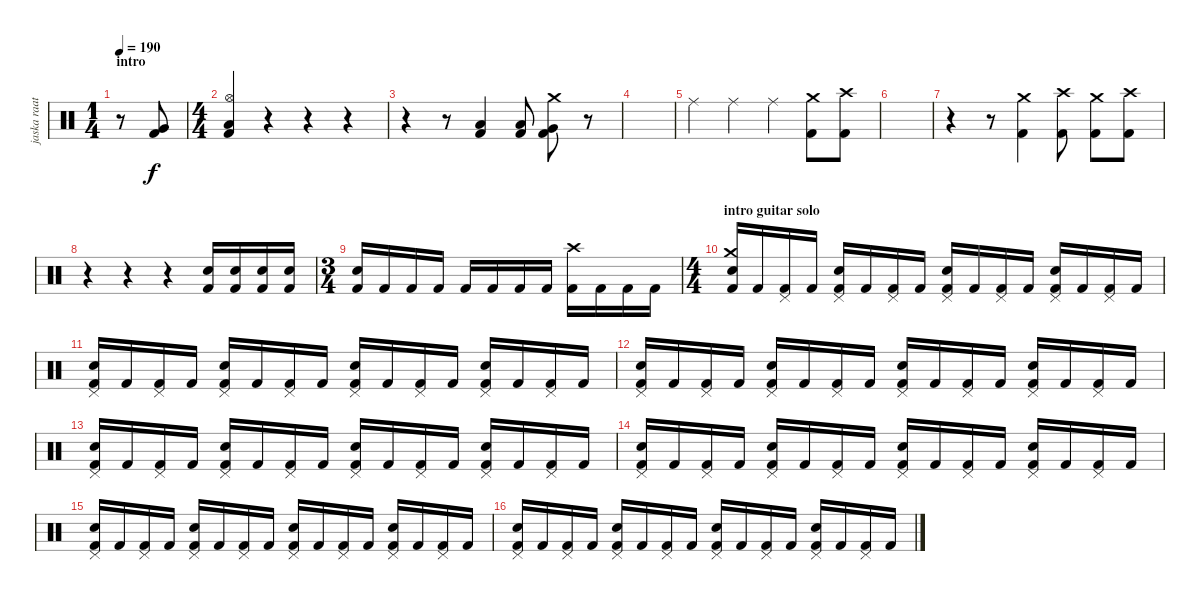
\track ("jaska raatikainen" "jaska raat") {instrument percussion}
\staff {score}
\articulation defaults
\ts (1 4)
\section ("" "intro")
\tempo 190
\clef neutral
\ks c
r.8{dy f} ("Very Low Tom (hit)" "Kick (hit) 2").8 |
\ts (4 4)
("Hi-Hat (open)" "Low Floor Tom (hit)" "Kick (hit) 2").4 r.4 r.4 r.4 |
r.4 r.8 ("Low Tom (hit)" "Kick (hit) 2").4 ("Low Floor Tom (hit)" "Kick (hit) 2").8 ("Crash medium (hit)" "Very Low Tom (hit)" "Kick (hit) 2").8 r.8 |
|
"Ride (middle)".4 "Ride (middle)".4 "Ride (middle)".4 ("Crash medium (hit)" "Kick (hit) 2").8 ("Crash high (hit)" "Kick (hit) 2").8 |
|
r.4 r.8 ("Crash medium (hit)" "Kick (hit) 2").4 ("Crash high (hit)" "Kick (hit) 2").8 ("Crash medium (hit)" "Kick (hit) 2").8 ("Crash high (hit)" "Kick (hit) 2").8 |
r.4 r.4 r.4 ("Snare (hit) 2" "Kick (hit) 2").16 ("Snare (hit) 2" "Kick (hit) 2").16 ("Snare (hit) 2" "Kick (hit) 2").16 ("Snare (hit) 2" "Kick (hit) 2").16 |
\ts (3 4)
("Snare (hit) 2" "Kick (hit) 2").16 "Kick (hit) 2".16 "Kick (hit) 2".16 "Kick (hit) 2".16 "Kick (hit) 2".16 "Kick (hit) 2".16 "Kick (hit) 2".16 "Kick (hit) 2".16 ("Crash high (hit)" "Kick (hit) 2").16 "Kick (hit) 2".16 "Kick (hit) 2".16 "Kick (hit) 2".16 |
\ts (4 4)
\section ("" "intro guitar solo")
("Crash medium (hit)" "Snare (hit) 2" "Kick (hit) 2").16 "Kick (hit) 2".16 ("Pedal Hi-Hat (hit)" "Kick (hit) 2").16 "Kick (hit) 2".16 ("Pedal Hi-Hat (hit)" "Snare (hit) 2" "Kick (hit) 2").16 "Kick (hit) 2".16 ("Pedal Hi-Hat (hit)" "Kick (hit) 2").16 "Kick (hit) 2".16 ("Pedal Hi-Hat (hit)" "Snare (hit) 2" "Kick (hit) 2").16 "Kick (hit) 2".16 ("Pedal Hi-Hat (hit)" "Kick (hit) 2").16 "Kick (hit) 2".16 ("Pedal Hi-Hat (hit)" "Snare (hit) 2" "Kick (hit) 2").16 "Kick (hit) 2".16 ("Pedal Hi-Hat (hit)" "Kick (hit) 2").16 "Kick (hit) 2".16 |
("Pedal Hi-Hat (hit)" "Snare (hit) 2" "Kick (hit) 2").16 "Kick (hit) 2".16 ("Pedal Hi-Hat (hit)" "Kick (hit) 2").16 "Kick (hit) 2".16 ("Pedal Hi-Hat (hit)" "Snare (hit) 2" "Kick (hit) 2").16 "Kick (hit) 2".16 ("Pedal Hi-Hat (hit)" "Kick (hit) 2").16 "Kick (hit) 2".16 ("Pedal Hi-Hat (hit)" "Snare (hit) 2" "Kick (hit) 2").16 "Kick (hit) 2".16 ("Pedal Hi-Hat (hit)" "Kick (hit) 2").16 "Kick (hit) 2".16 ("Pedal Hi-Hat (hit)" "Snare (hit) 2" "Kick (hit) 2").16 "Kick (hit) 2".16 ("Pedal Hi-Hat (hit)" "Kick (hit) 2").16 "Kick (hit) 2".16 |
("Pedal Hi-Hat (hit)" "Snare (hit) 2" "Kick (hit) 2").16 "Kick (hit) 2".16 ("Pedal Hi-Hat (hit)" "Kick (hit) 2").16 "Kick (hit) 2".16 ("Pedal Hi-Hat (hit)" "Snare (hit) 2" "Kick (hit) 2").16 "Kick (hit) 2".16 ("Pedal Hi-Hat (hit)" "Kick (hit) 2").16 "Kick (hit) 2".16 ("Pedal Hi-Hat (hit)" "Snare (hit) 2" "Kick (hit) 2").16 "Kick (hit) 2".16 ("Pedal Hi-Hat (hit)" "Kick (hit) 2").16 "Kick (hit) 2".16 ("Pedal Hi-Hat (hit)" "Snare (hit) 2" "Kick (hit) 2").16 "Kick (hit) 2".16 ("Pedal Hi-Hat (hit)" "Kick (hit) 2").16 "Kick (hit) 2".16 |
("Pedal Hi-Hat (hit)" "Snare (hit) 2" "Kick (hit) 2").16 "Kick (hit) 2".16 ("Pedal Hi-Hat (hit)" "Kick (hit) 2").16 "Kick (hit) 2".16 ("Pedal Hi-Hat (hit)" "Snare (hit) 2" "Kick (hit) 2").16 "Kick (hit) 2".16 ("Pedal Hi-Hat (hit)" "Kick (hit) 2").16 "Kick (hit) 2".16 ("Pedal Hi-Hat (hit)" "Snare (hit) 2" "Kick (hit) 2").16 "Kick (hit) 2".16 ("Pedal Hi-Hat (hit)" "Kick (hit) 2").16 "Kick (hit) 2".16 ("Pedal Hi-Hat (hit)" "Snare (hit) 2" "Kick (hit) 2").16 "Kick (hit) 2".16 ("Pedal Hi-Hat (hit)" "Kick (hit) 2").16 "Kick (hit) 2".16 |
("Pedal Hi-Hat (hit)" "Snare (hit) 2" "Kick (hit) 2").16 "Kick (hit) 2".16 ("Pedal Hi-Hat (hit)" "Kick (hit) 2").16 "Kick (hit) 2".16 ("Pedal Hi-Hat (hit)" "Snare (hit) 2" "Kick (hit) 2").16 "Kick (hit) 2".16 ("Pedal Hi-Hat (hit)" "Kick (hit) 2").16 "Kick (hit) 2".16 ("Pedal Hi-Hat (hit)" "Snare (hit) 2" "Kick (hit) 2").16 "Kick (hit) 2".16 ("Pedal Hi-Hat (hit)" "Kick (hit) 2").16 "Kick (hit) 2".16 ("Pedal Hi-Hat (hit)" "Snare (hit) 2" "Kick (hit) 2").16 "Kick (hit) 2".16 ("Pedal Hi-Hat (hit)" "Kick (hit) 2").16 "Kick (hit) 2".16 |
("Pedal Hi-Hat (hit)" "Snare (hit) 2" "Kick (hit) 2").16 "Kick (hit) 2".16 ("Pedal Hi-Hat (hit)" "Kick (hit) 2").16 "Kick (hit) 2".16 ("Pedal Hi-Hat (hit)" "Snare (hit) 2" "Kick (hit) 2").16 "Kick (hit) 2".16 ("Pedal Hi-Hat (hit)" "Kick (hit) 2").16 "Kick (hit) 2".16 ("Pedal Hi-Hat (hit)" "Snare (hit) 2" "Kick (hit) 2").16 "Kick (hit) 2".16 ("Pedal Hi-Hat (hit)" "Kick (hit) 2").16 "Kick (hit) 2".16 ("Pedal Hi-Hat (hit)" "Snare (hit) 2" "Kick (hit) 2").16 "Kick (hit) 2".16 ("Pedal Hi-Hat (hit)" "Kick (hit) 2").16 "Kick (hit) 2".16 |
("Pedal Hi-Hat (hit)" "Snare (hit) 2" "Kick (hit) 2").16 "Kick (hit) 2".16 ("Pedal Hi-Hat (hit)" "Kick (hit) 2").16 "Kick (hit) 2".16 ("Pedal Hi-Hat (hit)" "Snare (hit) 2" "Kick (hit) 2").16 "Kick (hit) 2".16 ("Pedal Hi-Hat (hit)" "Kick (hit) 2").16 "Kick (hit) 2".16 ("Pedal Hi-Hat (hit)" "Snare (hit) 2" "Kick (hit) 2").16 "Kick (hit) 2".16 ("Pedal Hi-Hat (hit)" "Kick (hit) 2").16 "Kick (hit) 2".16 ("Pedal Hi-Hat (hit)" "Snare (hit) 2" "Kick (hit) 2").16 "Kick (hit) 2".16 ("Pedal Hi-Hat (hit)" "Kick (hit) 2").16 "Kick (hit) 2".16
